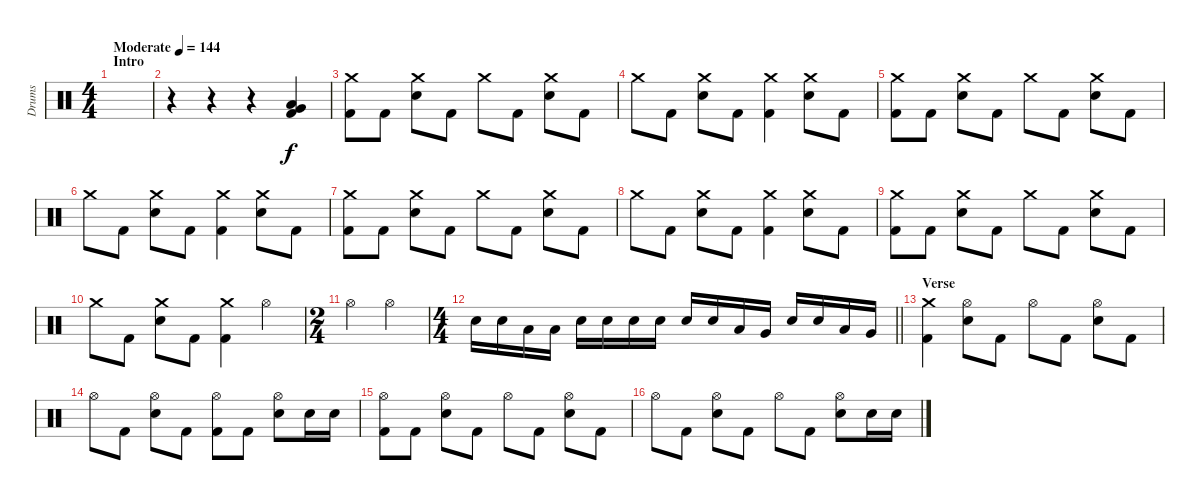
\track ("Drums" "Drums") {instrument percussion}
\staff {score}
\articulation defaults
\ts (4 4)
\section ("" "Intro")
\tempo (144 "Moderate")
\clef neutral
\ks c
|
r.4 r.4 r.4 ("Low Tom (hit)" "Very Low Tom (hit)" "Kick (hit) 2").4 |
("Crash medium (hit)" "Kick (hit) 2").8 "Kick (hit) 2".8 ("Crash medium (hit)" "Electric Snare (hit)").8 "Kick (hit) 2".8 "Crash medium (hit)".8 "Kick (hit) 2".8 ("Crash medium (hit)" "Electric Snare (hit)").8 "Kick (hit) 2".8 |
"Crash medium (hit)".8 "Kick (hit) 2".8 ("Crash medium (hit)" "Electric Snare (hit)").8 "Kick (hit) 2".8 ("Crash medium (hit)" "Kick (hit) 2").4 ("Crash medium (hit)" "Electric Snare (hit)").8 "Kick (hit) 2".8 |
("Crash medium (hit)" "Kick (hit) 2").8 "Kick (hit) 2".8 ("Crash medium (hit)" "Electric Snare (hit)").8 "Kick (hit) 2".8 "Crash medium (hit)".8 "Kick (hit) 2".8 ("Crash medium (hit)" "Electric Snare (hit)").8 "Kick (hit) 2".8 |
"Crash medium (hit)".8 "Kick (hit) 2".8 ("Crash medium (hit)" "Electric Snare (hit)").8 "Kick (hit) 2".8 ("Crash medium (hit)" "Kick (hit) 2").4 ("Crash medium (hit)" "Electric Snare (hit)").8 "Kick (hit) 2".8 |
("Crash medium (hit)" "Kick (hit) 2").8 "Kick (hit) 2".8 ("Crash medium (hit)" "Electric Snare (hit)").8 "Kick (hit) 2".8 "Crash medium (hit)".8 "Kick (hit) 2".8 ("Crash medium (hit)" "Electric Snare (hit)").8 "Kick (hit) 2".8 |
"Crash medium (hit)".8 "Kick (hit) 2".8 ("Crash medium (hit)" "Electric Snare (hit)").8 "Kick (hit) 2".8 ("Crash medium (hit)" "Kick (hit) 2").4 ("Crash medium (hit)" "Electric Snare (hit)").8 "Kick (hit) 2".8 |
("Crash medium (hit)" "Kick (hit) 2").8 "Kick (hit) 2".8 ("Crash medium (hit)" "Electric Snare (hit)").8 "Kick (hit) 2".8 "Crash medium (hit)".8 "Kick (hit) 2".8 ("Crash medium (hit)" "Electric Snare (hit)").8 "Kick (hit) 2".8 |
"Crash medium (hit)".8 "Kick (hit) 2".8 ("Crash medium (hit)" "Electric Snare (hit)").8 "Kick (hit) 2".8 ("Crash medium (hit)" "Kick (hit) 2").4 "Hi-Hat (open)".4 |
\ts (2 4)
"Hi-Hat (open)".4 "Hi-Hat (open)".4 |
\ts (4 4)
\barLineRight lightlight "Electric Snare (hit)".16 "Electric Snare (hit)".16 "Low Tom (hit)".16 "Low Tom (hit)".16 "Electric Snare (hit)".16 "Electric Snare (hit)".16 "Electric Snare (hit)".16 "Electric Snare (hit)".16 "Electric Snare (hit)".16 "Electric Snare (hit)".16 "Low Tom (hit)".16 "Very Low Tom (hit)".16 "Electric Snare (hit)".16 "Electric Snare (hit)".16 "Low Tom (hit)".16 "Very Low Tom (hit)".16
|
\section ("" "Verse")
("Crash medium (hit)" "Kick (hit) 2").4 ("Hi-Hat (open)" "Electric Snare (hit)").8 "Kick (hit) 2".8 "Hi-Hat (open)".8 "Kick (hit) 2".8 ("Hi-Hat (open)" "Electric Snare (hit)").8 "Kick (hit) 2".8 |
"Hi-Hat (open)".8 "Kick (hit) 2".8 ("Hi-Hat (open)" "Electric Snare (hit)").8 "Kick (hit) 2".8 ("Hi-Hat (open)" "Kick (hit) 2").8 "Kick (hit) 2".8 ("Hi-Hat (open)" "Electric Snare (hit)").8 "Electric Snare (hit)".16 "Electric Snare (hit)".16 |
("Hi-Hat (open)" "Kick (hit) 2").8 "Kick (hit) 2".8 ("Hi-Hat (open)" "Electric Snare (hit)").8 "Kick (hit) 2".8 "Hi-Hat (open)".8 "Kick (hit) 2".8 ("Hi-Hat (open)" "Electric Snare (hit)").8 "Kick (hit) 2".8 |
"Hi-Hat (open)".8 "Kick (hit) 2".8 ("Hi-Hat (open)" "Electric Snare (hit)").8 "Kick (hit) 2".8 "Hi-Hat (open)".8 "Kick (hit) 2".8 ("Hi-Hat (open)" "Electric Snare (hit)").8 "Electric Snare (hit)".16 "Electric Snare (hit)".16
